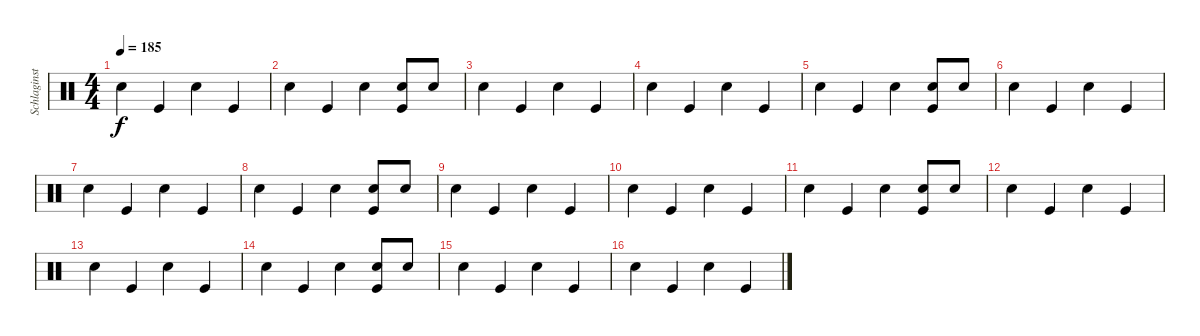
\track ("Schlaginstrumente - Auswahl" "Schlaginst") {instrument percussion}
\staff {score}
\articulation defaults
\ts (4 4)
\tempo 185
\clef neutral
\ks c "Snare (hit) 2".4{dy f} "Kick (hit)".4 "Snare (hit) 2".4 "Kick (hit)".4
|
"Snare (hit) 2".4 "Kick (hit)".4 "Snare (hit) 2".4 ("Kick (hit)" "Snare (hit) 2").8 "Snare (hit) 2".8 |
"Snare (hit) 2".4 "Kick (hit)".4 "Snare (hit) 2".4 "Kick (hit)".4 |
"Snare (hit) 2".4 "Kick (hit)".4 "Snare (hit) 2".4 "Kick (hit)".4 |
"Snare (hit) 2".4 "Kick (hit)".4 "Snare (hit) 2".4 ("Kick (hit)" "Snare (hit) 2").8 "Snare (hit) 2".8 |
"Snare (hit) 2".4 "Kick (hit)".4 "Snare (hit) 2".4 "Kick (hit)".4 |
"Snare (hit) 2".4 "Kick (hit)".4 "Snare (hit) 2".4 "Kick (hit)".4 |
"Snare (hit) 2".4 "Kick (hit)".4 "Snare (hit) 2".4 ("Kick (hit)" "Snare (hit) 2").8 "Snare (hit) 2".8 |
"Snare (hit) 2".4 "Kick (hit)".4 "Snare (hit) 2".4 "Kick (hit)".4 |
"Snare (hit) 2".4 "Kick (hit)".4 "Snare (hit) 2".4 "Kick (hit)".4 |
"Snare (hit) 2".4 "Kick (hit)".4 "Snare (hit) 2".4 ("Kick (hit)" "Snare (hit) 2").8 "Snare (hit) 2".8 |
"Snare (hit) 2".4 "Kick (hit)".4 "Snare (hit) 2".4 "Kick (hit)".4 |
"Snare (hit) 2".4 "Kick (hit)".4 "Snare (hit) 2".4 "Kick (hit)".4 |
"Snare (hit) 2".4 "Kick (hit)".4 "Snare (hit) 2".4 ("Kick (hit)" "Snare (hit) 2").8 "Snare (hit) 2".8 |
"Snare (hit) 2".4 "Kick (hit)".4 "Snare (hit) 2".4 "Kick (hit)".4 |
"Snare (hit) 2".4 "Kick (hit)".4 "Snare (hit) 2".4 "Kick (hit)".4
